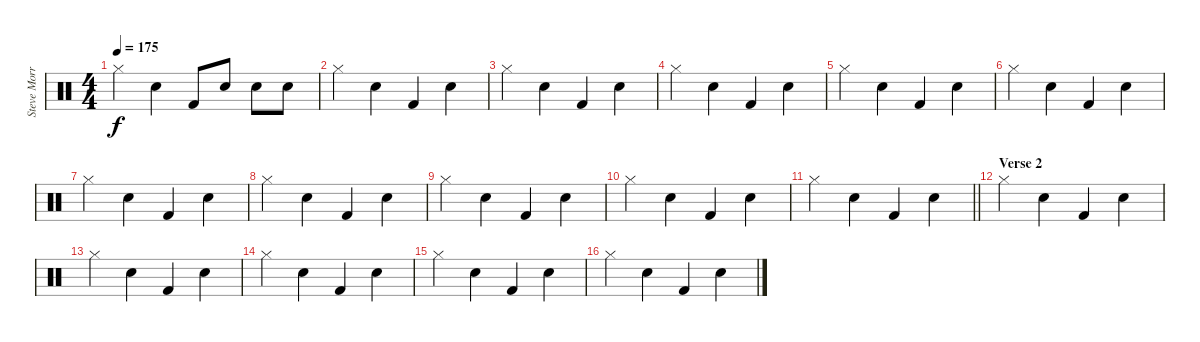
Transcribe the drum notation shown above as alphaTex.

\track ("Steve Morris" "Steve Morr") {instrument percussion}
\staff {score}
\articulation defaults
\ts (4 4)
\tempo 175
\clef neutral
\ks c "Hi-Hat (closed)".4{dy f} "Snare (hit) 2".4 "Kick (hit) 2".8 "Snare (hit) 2".8 "Snare (hit) 2".8 "Snare (hit) 2".8
|
"Hi-Hat (closed)".4 "Snare (hit) 2".4 "Kick (hit) 2".4 "Snare (hit) 2".4 |
"Hi-Hat (closed)".4 "Snare (hit) 2".4 "Kick (hit) 2".4 "Snare (hit) 2".4 |
"Hi-Hat (closed)".4 "Snare (hit) 2".4 "Kick (hit) 2".4 "Snare (hit) 2".4 |
"Hi-Hat (closed)".4 "Snare (hit) 2".4 "Kick (hit) 2".4 "Snare (hit) 2".4 |
"Hi-Hat (closed)".4 "Snare (hit) 2".4 "Kick (hit) 2".4 "Snare (hit) 2".4 |
"Hi-Hat (closed)".4 "Snare (hit) 2".4 "Kick (hit) 2".4 "Snare (hit) 2".4 |
"Hi-Hat (closed)".4 "Snare (hit) 2".4 "Kick (hit) 2".4 "Snare (hit) 2".4 |
"Hi-Hat (closed)".4 "Snare (hit) 2".4 "Kick (hit) 2".4 "Snare (hit) 2".4 |
"Hi-Hat (closed)".4 "Snare (hit) 2".4 "Kick (hit) 2".4 "Snare (hit) 2".4 |
\barLineRight lightlight "Hi-Hat (closed)".4 "Snare (hit) 2".4 "Kick (hit) 2".4 "Snare (hit) 2".4
|
\section ("" "Verse 2")
"Hi-Hat (closed)".4 "Snare (hit) 2".4 "Kick (hit) 2".4 "Snare (hit) 2".4 |
"Hi-Hat (closed)".4 "Snare (hit) 2".4 "Kick (hit) 2".4 "Snare (hit) 2".4 |
"Hi-Hat (closed)".4 "Snare (hit) 2".4 "Kick (hit) 2".4 "Snare (hit) 2".4 |
"Hi-Hat (closed)".4 "Snare (hit) 2".4 "Kick (hit) 2".4 "Snare (hit) 2".4 |
"Hi-Hat (closed)".4 "Snare (hit) 2".4 "Kick (hit) 2".4 "Snare (hit) 2".4
